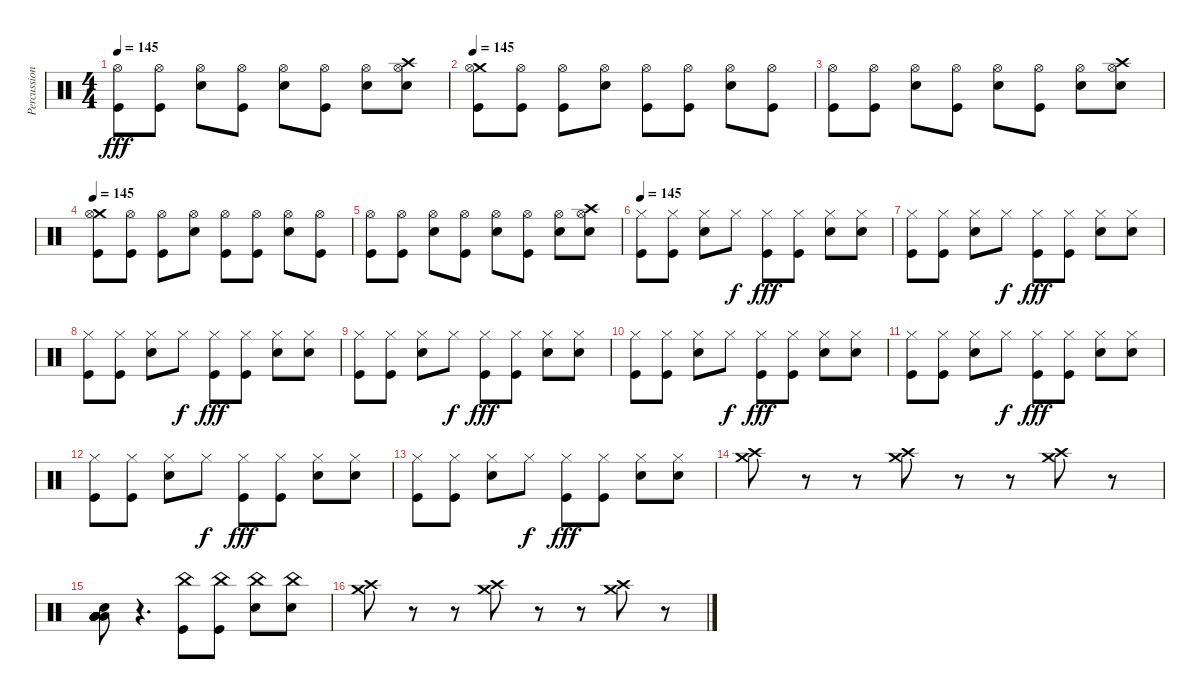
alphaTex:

\track ("Percussion" "Percussion") {instrument percussion}
\staff {score}
\articulation defaults
\ts (4 4)
\tempo 145
\clef neutral
\ks c
("Kick (hit)" "Hi-Hat (open)").8{dy fff} ("Kick (hit)" "Hi-Hat (open)").8 ("Snare (hit) 2" "Hi-Hat (open)").8 ("Kick (hit)" "Hi-Hat (open)").8 ("Snare (hit) 2" "Hi-Hat (open)").8 ("Kick (hit)" "Hi-Hat (open)").8 ("Snare (hit) 2" "Hi-Hat (open)").8 ("Crash high (hit)" "Snare (hit) 2" "Hi-Hat (open)").8 |
\tempo 145
("Crash medium (hit)" "Kick (hit)" "Hi-Hat (open)").8 ("Kick (hit)" "Hi-Hat (open)").8 ("Kick (hit)" "Hi-Hat (open)").8 ("Snare (hit) 2" "Hi-Hat (open)").8 ("Kick (hit)" "Hi-Hat (open)").8 ("Kick (hit)" "Hi-Hat (open)").8 ("Snare (hit) 2" "Hi-Hat (open)").8 ("Kick (hit)" "Hi-Hat (open)").8 |
("Kick (hit)" "Hi-Hat (open)").8 ("Kick (hit)" "Hi-Hat (open)").8 ("Snare (hit) 2" "Hi-Hat (open)").8 ("Kick (hit)" "Hi-Hat (open)").8 ("Snare (hit) 2" "Hi-Hat (open)").8 ("Kick (hit)" "Hi-Hat (open)").8 ("Snare (hit) 2" "Hi-Hat (open)").8 ("Crash high (hit)" "Snare (hit) 2" "Hi-Hat (open)").8 |
\tempo 145
("Crash medium (hit)" "Kick (hit)" "Hi-Hat (open)").8 ("Kick (hit)" "Hi-Hat (open)").8 ("Kick (hit)" "Hi-Hat (open)").8 ("Snare (hit) 2" "Hi-Hat (open)").8 ("Kick (hit)" "Hi-Hat (open)").8 ("Kick (hit)" "Hi-Hat (open)").8 ("Snare (hit) 2" "Hi-Hat (open)").8 ("Kick (hit)" "Hi-Hat (open)").8 |
("Kick (hit)" "Hi-Hat (open)").8 ("Kick (hit)" "Hi-Hat (open)").8 ("Snare (hit) 2" "Hi-Hat (open)").8 ("Kick (hit)" "Hi-Hat (open)").8 ("Snare (hit) 2" "Hi-Hat (open)").8 ("Kick (hit)" "Hi-Hat (open)").8 ("Snare (hit) 2" "Hi-Hat (open)").8 ("Crash high (hit)" "Snare (hit) 2" "Hi-Hat (open)").8 |
\tempo 145
("Kick (hit)" "Hi-Hat (closed)").8 ("Kick (hit)" "Hi-Hat (closed)").8 ("Snare (hit) 2" "Hi-Hat (closed)").8 "Hi-Hat (closed)".8{dy f} ("Kick (hit)" "Hi-Hat (closed)").8{dy fff} ("Kick (hit)" "Hi-Hat (closed)").8 ("Snare (hit) 2" "Hi-Hat (closed)").8 ("Snare (hit) 2" "Hi-Hat (closed)").8 |
("Kick (hit)" "Hi-Hat (closed)").8 ("Kick (hit)" "Hi-Hat (closed)").8 ("Snare (hit) 2" "Hi-Hat (closed)").8 "Hi-Hat (closed)".8{dy f} ("Kick (hit)" "Hi-Hat (closed)").8{dy fff} ("Kick (hit)" "Hi-Hat (closed)").8 ("Snare (hit) 2" "Hi-Hat (closed)").8 ("Snare (hit) 2" "Hi-Hat (closed)").8 |
("Kick (hit)" "Hi-Hat (closed)").8 ("Kick (hit)" "Hi-Hat (closed)").8 ("Snare (hit) 2" "Hi-Hat (closed)").8 "Hi-Hat (closed)".8{dy f} ("Kick (hit)" "Hi-Hat (closed)").8{dy fff} ("Kick (hit)" "Hi-Hat (closed)").8 ("Snare (hit) 2" "Hi-Hat (closed)").8 ("Snare (hit) 2" "Hi-Hat (closed)").8 |
("Kick (hit)" "Hi-Hat (closed)").8 ("Kick (hit)" "Hi-Hat (closed)").8 ("Snare (hit) 2" "Hi-Hat (closed)").8 "Hi-Hat (closed)".8{dy f} ("Kick (hit)" "Hi-Hat (closed)").8{dy fff} ("Kick (hit)" "Hi-Hat (closed)").8 ("Snare (hit) 2" "Hi-Hat (closed)").8 ("Snare (hit) 2" "Hi-Hat (closed)").8 |
("Kick (hit)" "Hi-Hat (closed)").8 ("Kick (hit)" "Hi-Hat (closed)").8 ("Snare (hit) 2" "Hi-Hat (closed)").8 "Hi-Hat (closed)".8{dy f} ("Kick (hit)" "Hi-Hat (closed)").8{dy fff} ("Kick (hit)" "Hi-Hat (closed)").8 ("Snare (hit) 2" "Hi-Hat (closed)").8 ("Snare (hit) 2" "Hi-Hat (closed)").8 |
("Kick (hit)" "Hi-Hat (closed)").8 ("Kick (hit)" "Hi-Hat (closed)").8 ("Snare (hit) 2" "Hi-Hat (closed)").8 "Hi-Hat (closed)".8{dy f} ("Kick (hit)" "Hi-Hat (closed)").8{dy fff} ("Kick (hit)" "Hi-Hat (closed)").8 ("Snare (hit) 2" "Hi-Hat (closed)").8 ("Snare (hit) 2" "Hi-Hat (closed)").8 |
("Kick (hit)" "Hi-Hat (closed)").8 ("Kick (hit)" "Hi-Hat (closed)").8 ("Snare (hit) 2" "Hi-Hat (closed)").8 "Hi-Hat (closed)".8{dy f} ("Kick (hit)" "Hi-Hat (closed)").8{dy fff} ("Kick (hit)" "Hi-Hat (closed)").8 ("Snare (hit) 2" "Hi-Hat (closed)").8 ("Snare (hit) 2" "Hi-Hat (closed)").8 |
("Kick (hit)" "Hi-Hat (closed)").8 ("Kick (hit)" "Hi-Hat (closed)").8 ("Snare (hit) 2" "Hi-Hat (closed)").8 "Hi-Hat (closed)".8{dy f} ("Kick (hit)" "Hi-Hat (closed)").8{dy fff} ("Kick (hit)" "Hi-Hat (closed)").8 ("Snare (hit) 2" "Hi-Hat (closed)").8 ("Snare (hit) 2" "Hi-Hat (closed)").8 |
("Crash high (hit)" "Crash medium (hit)").8 r.8 r.8 ("Crash high (hit)" "Crash medium (hit)").8 r.8 r.8 ("Crash medium (hit)" "Crash high (hit)").8 r.8 |
("Snare (hit) 2" "Low Floor Tom (hit)" "Low Floor Tom (hit)" "Low Floor Tom (hit)" "Low Floor Tom (hit)" "Low Floor Tom (hit)").8 r.4{d} ("Kick (hit)" "China (hit)").8 ("Kick (hit)" "China (hit)").8 ("Snare (hit) 2" "China (hit)").8 ("Snare (hit) 2" "China (hit)").8 |
("Crash high (hit)" "Crash medium (hit)").8 r.8 r.8 ("Crash high (hit)" "Crash medium (hit)").8 r.8 r.8 ("Crash medium (hit)" "Crash high (hit)").8 r.8
